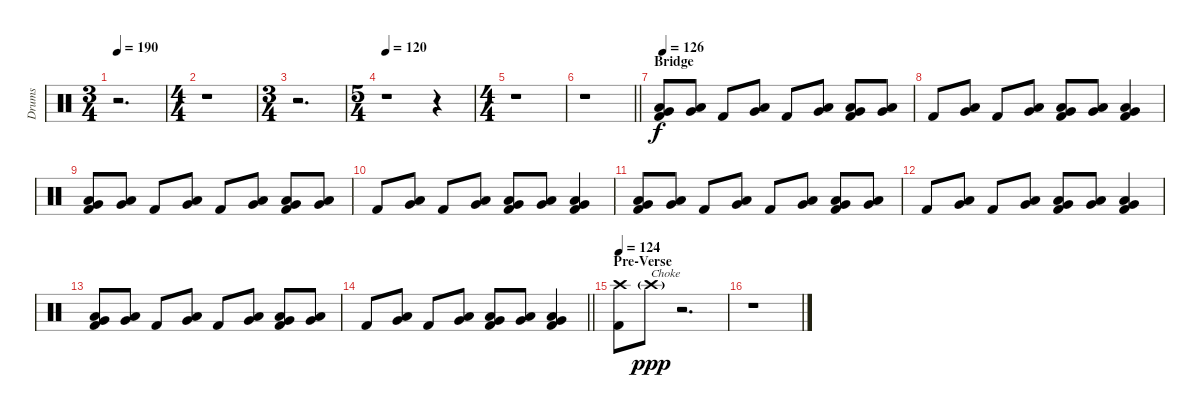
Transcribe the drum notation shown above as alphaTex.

\track ("Drums" "Drums") {instrument percussion}
\staff {score}
\articulation defaults
\ts (3 4)
\tempo 190
\clef neutral
\ks c
r.2{d dy f} |
\ts (4 4)
r.1 |
\ts (3 4)
r.2{d} |
\ts (5 4)
\tempo 120
r.1 r.4 |
\ts (4 4)
r.1 |
\barLineRight lightlight
r.1 |
\section ("" "Bridge")
\tempo 126
("Low Tom (hit)" "Very Low Tom (hit)" "Kick (hit) 2").8 ("Low Tom (hit)" "Very Low Tom (hit)").8 "Kick (hit) 2".8 ("Low Tom (hit)" "Very Low Tom (hit)").8 "Kick (hit) 2".8 ("Low Tom (hit)" "Very Low Tom (hit)").8 ("Very Low Tom (hit)" "Low Floor Tom (hit)" "Kick (hit) 2").8 ("Very Low Tom (hit)" "Low Floor Tom (hit)").8 |
"Kick (hit) 2".8 ("Very Low Tom (hit)" "Low Floor Tom (hit)").8 "Kick (hit) 2".8 ("Very Low Tom (hit)" "Low Floor Tom (hit)").8 ("Low Tom (hit)" "Very Low Tom (hit)" "Kick (hit) 2").8 ("Low Tom (hit)" "Very Low Tom (hit)").8 ("Very Low Tom (hit)" "Low Floor Tom (hit)" "Kick (hit) 2").4 |
("Low Tom (hit)" "Very Low Tom (hit)" "Kick (hit) 2").8 ("Low Tom (hit)" "Very Low Tom (hit)").8 "Kick (hit) 2".8 ("Low Tom (hit)" "Very Low Tom (hit)").8 "Kick (hit) 2".8 ("Low Tom (hit)" "Very Low Tom (hit)").8 ("Very Low Tom (hit)" "Low Floor Tom (hit)" "Kick (hit) 2").8 ("Very Low Tom (hit)" "Low Floor Tom (hit)").8 |
"Kick (hit) 2".8 ("Very Low Tom (hit)" "Low Floor Tom (hit)").8 "Kick (hit) 2".8 ("Very Low Tom (hit)" "Low Floor Tom (hit)").8 ("Low Tom (hit)" "Very Low Tom (hit)" "Kick (hit) 2").8 ("Low Tom (hit)" "Very Low Tom (hit)").8 ("Very Low Tom (hit)" "Low Floor Tom (hit)" "Kick (hit) 2").4 |
("Low Tom (hit)" "Very Low Tom (hit)" "Kick (hit) 2").8 ("Low Tom (hit)" "Very Low Tom (hit)").8 "Kick (hit) 2".8 ("Low Tom (hit)" "Very Low Tom (hit)").8 "Kick (hit) 2".8 ("Low Tom (hit)" "Very Low Tom (hit)").8 ("Very Low Tom (hit)" "Low Floor Tom (hit)" "Kick (hit) 2").8 ("Very Low Tom (hit)" "Low Floor Tom (hit)").8 |
"Kick (hit) 2".8 ("Very Low Tom (hit)" "Low Floor Tom (hit)").8 "Kick (hit) 2".8 ("Very Low Tom (hit)" "Low Floor Tom (hit)").8 ("Low Tom (hit)" "Very Low Tom (hit)" "Kick (hit) 2").8 ("Low Tom (hit)" "Very Low Tom (hit)").8 ("Very Low Tom (hit)" "Low Floor Tom (hit)" "Kick (hit) 2").4 |
("Low Tom (hit)" "Very Low Tom (hit)" "Kick (hit) 2").8 ("Low Tom (hit)" "Very Low Tom (hit)").8 "Kick (hit) 2".8 ("Low Tom (hit)" "Very Low Tom (hit)").8 "Kick (hit) 2".8 ("Low Tom (hit)" "Very Low Tom (hit)").8 ("Very Low Tom (hit)" "Low Floor Tom (hit)" "Kick (hit) 2").8 ("Very Low Tom (hit)" "Low Floor Tom (hit)").8 |
\barLineRight lightlight "Kick (hit) 2".8
("Very Low Tom (hit)" "Low Floor Tom (hit)").8 "Kick (hit) 2".8 ("Very Low Tom (hit)" "Low Floor Tom (hit)").8 ("Low Tom (hit)" "Very Low Tom (hit)" "Kick (hit) 2").8 ("Low Tom (hit)" "Very Low Tom (hit)").8 ("Very Low Tom (hit)" "Low Floor Tom (hit)" "Kick (hit) 2").4 |
\section ("" "Pre-Verse")
\tempo 124
("Crash high (hit)" "Kick (hit) 2").8 "Crash high (hit)"{g}.8{txt "Choke" dy ppp volume 0} r.2{d} |
r.1
